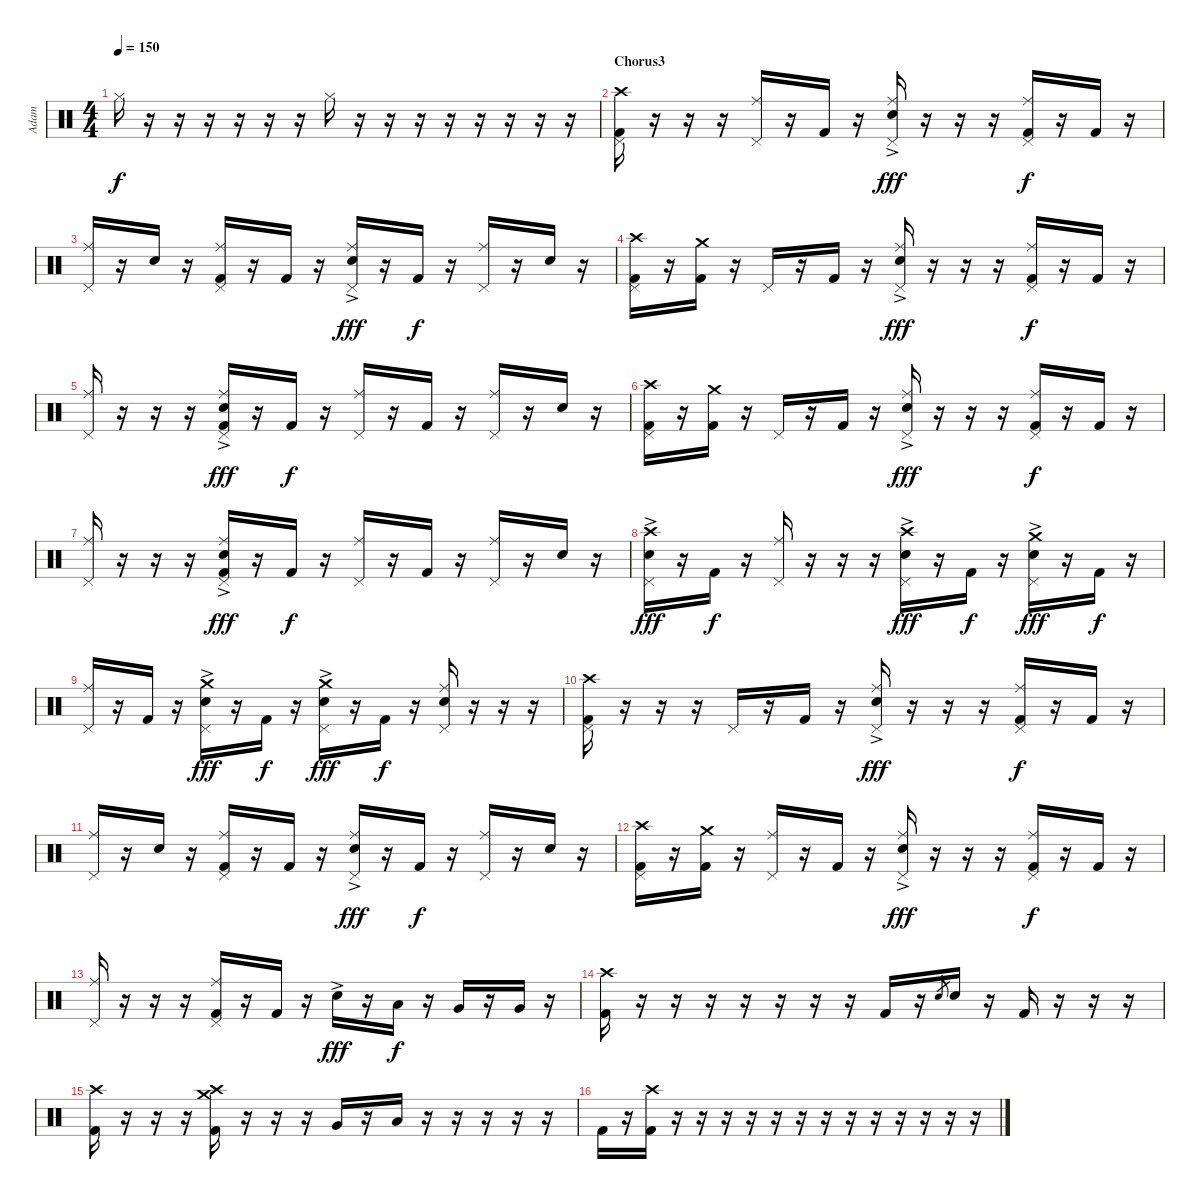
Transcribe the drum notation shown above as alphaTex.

\track ("Adam" "Adam") {instrument percussion}
\staff {score}
\articulation defaults
\ts (4 4)
\tempo 150
\clef neutral
\ks c "Hi-Hat (closed)".16{dy f}
r.16 r.16 r.16 r.16 r.16 r.16 "Hi-Hat (closed)".16 r.16 r.16 r.16 r.16 r.16 r.16 r.16 r.16 |
\section ("" "Chorus3")
("Crash high (hit)" "Pedal Hi-Hat (hit)" "Kick (hit) 2").16 r.16 r.16 r.16 ("Ride (middle)" "Pedal Hi-Hat (hit)").16 r.16 "Kick (hit) 2".16 r.16 ("Ride (middle)" "Pedal Hi-Hat (hit)" "Electric Snare (hit)"{ac}).16{dy fff} r.16 r.16 r.16 ("Ride (middle)" "Pedal Hi-Hat (hit)" "Kick (hit) 2").16{dy f} r.16 "Kick (hit) 2".16 r.16 |
("Ride (middle)" "Pedal Hi-Hat (hit)").16 r.16 "Electric Snare (hit)".16 r.16 ("Ride (middle)" "Pedal Hi-Hat (hit)" "Kick (hit) 2").16 r.16 "Kick (hit) 2".16 r.16 ("Ride (middle)" "Pedal Hi-Hat (hit)" "Electric Snare (hit)"{ac}).16{dy fff} r.16 "Kick (hit) 2".16{dy f} r.16 ("Ride (middle)" "Pedal Hi-Hat (hit)").16 r.16 "Electric Snare (hit)".16 r.16 |
("Crash high (hit)" "Pedal Hi-Hat (hit)" "Kick (hit) 2").16 r.16 ("Crash medium (hit)" "Kick (hit) 2").16 r.16 "Pedal Hi-Hat (hit)".16 r.16 "Kick (hit) 2".16 r.16 ("Ride (middle)" "Pedal Hi-Hat (hit)" "Electric Snare (hit)"{ac}).16{dy fff} r.16 r.16 r.16 ("Ride (middle)" "Pedal Hi-Hat (hit)" "Kick (hit) 2").16{dy f} r.16 "Kick (hit) 2".16 r.16 |
("Ride (middle)" "Pedal Hi-Hat (hit)").16 r.16 r.16 r.16 ("Ride (middle)" "Pedal Hi-Hat (hit)" "Electric Snare (hit)"{ac} "Kick (hit) 2").16{dy fff} r.16 "Kick (hit) 2".16{dy f} r.16 ("Ride (middle)" "Pedal Hi-Hat (hit)").16 r.16 "Kick (hit) 2".16 r.16 ("Ride (middle)" "Pedal Hi-Hat (hit)").16 r.16 "Electric Snare (hit)".16 r.16 |
("Crash high (hit)" "Pedal Hi-Hat (hit)" "Kick (hit) 2").16 r.16 ("Crash medium (hit)" "Kick (hit) 2").16 r.16 "Pedal Hi-Hat (hit)".16 r.16 "Kick (hit) 2".16 r.16 ("Ride (middle)" "Pedal Hi-Hat (hit)" "Electric Snare (hit)"{ac}).16{dy fff} r.16 r.16 r.16 ("Ride (middle)" "Pedal Hi-Hat (hit)" "Kick (hit) 2").16{dy f} r.16 "Kick (hit) 2".16 r.16 |
("Ride (middle)" "Pedal Hi-Hat (hit)").16 r.16 r.16 r.16 ("Ride (middle)" "Pedal Hi-Hat (hit)" "Electric Snare (hit)"{ac} "Kick (hit) 2").16{dy fff} r.16 "Kick (hit) 2".16{dy f} r.16 ("Ride (middle)" "Pedal Hi-Hat (hit)").16 r.16 "Kick (hit) 2".16 r.16 ("Ride (middle)" "Pedal Hi-Hat (hit)").16 r.16 "Electric Snare (hit)".16 r.16 |
("Crash high (hit)" "Pedal Hi-Hat (hit)" "Electric Snare (hit)"{ac}).16{dy fff} r.16 "Kick (hit) 2".16{dy f} r.16 ("Ride (middle)" "Pedal Hi-Hat (hit)").16 r.16 r.16 r.16 ("Crash high (hit)" "Pedal Hi-Hat (hit)" "Electric Snare (hit)"{ac}).16{dy fff} r.16 "Kick (hit) 2".16{dy f} r.16 ("Crash medium (hit)" "Pedal Hi-Hat (hit)" "Electric Snare (hit)"{ac}).16{dy fff} r.16 "Kick (hit) 2".16{dy f} r.16 |
("Ride (middle)" "Pedal Hi-Hat (hit)").16 r.16 "Kick (hit) 2".16 r.16 ("Crash medium (hit)" "Pedal Hi-Hat (hit)" "Electric Snare (hit)"{ac}).16{dy fff} r.16 "Kick (hit) 2".16{dy f} r.16 ("Crash medium (hit)" "Pedal Hi-Hat (hit)" "Electric Snare (hit)"{ac}).16{dy fff} r.16 "Kick (hit) 2".16{dy f} r.16 ("Ride (middle)" "Pedal Hi-Hat (hit)" "Electric Snare (hit)").16 r.16 r.16 r.16 |
("Crash high (hit)" "Pedal Hi-Hat (hit)" "Kick (hit) 2").16 r.16 r.16 r.16 "Pedal Hi-Hat (hit)".16 r.16 "Kick (hit) 2".16 r.16 ("Pedal Hi-Hat (hit)" "Ride (middle)" "Electric Snare (hit)"{ac}).16{dy fff} r.16 r.16 r.16 ("Pedal Hi-Hat (hit)" "Ride (middle)" "Kick (hit) 2").16{dy f} r.16 "Kick (hit) 2".16 r.16 |
("Pedal Hi-Hat (hit)" "Ride (middle)").16 r.16 "Electric Snare (hit)".16 r.16 ("Pedal Hi-Hat (hit)" "Ride (middle)" "Kick (hit) 2").16 r.16 "Kick (hit) 2".16 r.16 ("Pedal Hi-Hat (hit)" "Ride (middle)" "Electric Snare (hit)"{ac}).16{dy fff} r.16 "Kick (hit) 2".16{dy f} r.16 ("Pedal Hi-Hat (hit)" "Ride (middle)").16 r.16 "Electric Snare (hit)".16 r.16 |
("Crash high (hit)" "Pedal Hi-Hat (hit)" "Kick (hit) 2").16 r.16 ("Crash medium (hit)" "Kick (hit) 2").16 r.16 ("Pedal Hi-Hat (hit)" "Ride (middle)").16 r.16 "Kick (hit) 2".16 r.16 ("Pedal Hi-Hat (hit)" "Ride (middle)" "Electric Snare (hit)"{ac}).16{dy fff} r.16 r.16 r.16 ("Pedal Hi-Hat (hit)" "Ride (middle)" "Kick (hit) 2").16{dy f} r.16 "Kick (hit) 2".16 r.16 |
("Pedal Hi-Hat (hit)" "Ride (middle)").16 r.16 r.16 r.16 ("Pedal Hi-Hat (hit)" "Ride (middle)" "Kick (hit) 2").16 r.16 "Kick (hit) 2".16 r.16 "Electric Snare (hit)"{ac}.16{dy fff} r.16 "Low Tom (hit)".16{dy f} r.16 "Very Low Tom (hit)".16 r.16 "Very Low Tom (hit)".16 r.16 |
("Crash high (hit)" "Kick (hit) 2").16 r.16 r.16 r.16 r.16 r.16 r.16 r.16 "Kick (hit) 2".16 r.16 "Electric Snare (hit)".8{gr} "Electric Snare (hit)".16 r.16 "Kick (hit) 2".16 r.16 r.16 r.16 |
("Crash high (hit)" "Kick (hit) 2").16 r.16 r.16 r.16 ("Crash high (hit)" "Crash medium (hit)" "Kick (hit) 2").16 r.16 r.16 r.16 "Very Low Tom (hit)".16 r.16 "Low Tom (hit)".16 r.16 r.16 r.16 r.16 r.16 |
"Kick (hit) 2".16 r.16 ("Crash high (hit)" "Kick (hit) 2").16 r.16 r.16 r.16 r.16 r.16 r.16 r.16 r.16 r.16 r.16 r.16 r.16 r.16
